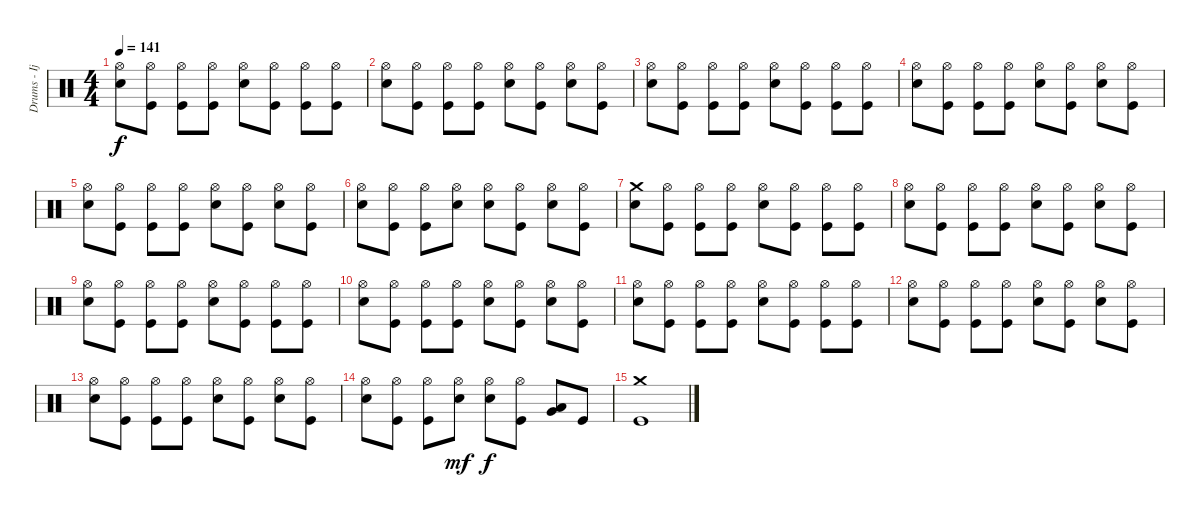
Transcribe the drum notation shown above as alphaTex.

\track ("Drums - Ijichi" "Drums - Ij") {instrument percussion}
\staff {score}
\articulation defaults
\ts (4 4)
\tempo 141
\clef neutral
\ks c
("Hi-Hat (open)" "Electric Snare (hit)").8{dy f} ("Hi-Hat (open)" "Kick (hit)").8 ("Hi-Hat (open)" "Kick (hit)").8 ("Hi-Hat (open)" "Kick (hit)").8 ("Hi-Hat (open)" "Electric Snare (hit)").8 ("Hi-Hat (open)" "Kick (hit)").8 ("Hi-Hat (open)" "Kick (hit)").8 ("Hi-Hat (open)" "Kick (hit)").8 |
("Hi-Hat (open)" "Electric Snare (hit)").8 ("Hi-Hat (open)" "Kick (hit)").8 ("Hi-Hat (open)" "Kick (hit)").8 ("Hi-Hat (open)" "Kick (hit)").8 ("Hi-Hat (open)" "Electric Snare (hit)").8 ("Hi-Hat (open)" "Kick (hit)").8 ("Hi-Hat (open)" "Electric Snare (hit)").8 ("Hi-Hat (open)" "Kick (hit)").8 |
("Hi-Hat (open)" "Electric Snare (hit)").8 ("Hi-Hat (open)" "Kick (hit)").8 ("Hi-Hat (open)" "Kick (hit)").8 ("Hi-Hat (open)" "Kick (hit)").8 ("Hi-Hat (open)" "Electric Snare (hit)").8 ("Hi-Hat (open)" "Kick (hit)").8 ("Hi-Hat (open)" "Kick (hit)").8 ("Hi-Hat (open)" "Kick (hit)").8 |
("Hi-Hat (open)" "Electric Snare (hit)").8 ("Hi-Hat (open)" "Kick (hit)").8 ("Hi-Hat (open)" "Kick (hit)").8 ("Hi-Hat (open)" "Kick (hit)").8 ("Hi-Hat (open)" "Electric Snare (hit)").8 ("Hi-Hat (open)" "Kick (hit)").8 ("Hi-Hat (open)" "Electric Snare (hit)").8 ("Hi-Hat (open)" "Kick (hit)").8 |
("Hi-Hat (open)" "Electric Snare (hit)").8 ("Hi-Hat (open)" "Kick (hit)").8 ("Hi-Hat (open)" "Kick (hit)").8 ("Hi-Hat (open)" "Kick (hit)").8 ("Hi-Hat (open)" "Electric Snare (hit)").8 ("Hi-Hat (open)" "Kick (hit)").8 ("Hi-Hat (open)" "Electric Snare (hit)").8 ("Hi-Hat (open)" "Kick (hit)").8 |
("Hi-Hat (open)" "Electric Snare (hit)").8 ("Hi-Hat (open)" "Kick (hit)").8 ("Hi-Hat (open)" "Kick (hit)").8 ("Hi-Hat (open)" "Electric Snare (hit)").8 ("Hi-Hat (open)" "Electric Snare (hit)").8 ("Hi-Hat (open)" "Kick (hit)").8 ("Hi-Hat (open)" "Electric Snare (hit)").8 ("Hi-Hat (open)" "Kick (hit)").8 |
("Crash medium (hit)" "Electric Snare (hit)").8 ("Hi-Hat (open)" "Kick (hit)").8 ("Hi-Hat (open)" "Kick (hit)").8 ("Hi-Hat (open)" "Kick (hit)").8 ("Hi-Hat (open)" "Electric Snare (hit)").8 ("Hi-Hat (open)" "Kick (hit)").8 ("Hi-Hat (open)" "Kick (hit)").8 ("Hi-Hat (open)" "Kick (hit)").8 |
("Hi-Hat (open)" "Electric Snare (hit)").8 ("Hi-Hat (open)" "Kick (hit)").8 ("Hi-Hat (open)" "Kick (hit)").8 ("Hi-Hat (open)" "Kick (hit)").8 ("Hi-Hat (open)" "Electric Snare (hit)").8 ("Hi-Hat (open)" "Kick (hit)").8 ("Hi-Hat (open)" "Electric Snare (hit)").8 ("Hi-Hat (open)" "Kick (hit)").8 |
("Hi-Hat (open)" "Electric Snare (hit)").8 ("Hi-Hat (open)" "Kick (hit)").8 ("Hi-Hat (open)" "Kick (hit)").8 ("Hi-Hat (open)" "Kick (hit)").8 ("Hi-Hat (open)" "Electric Snare (hit)").8 ("Hi-Hat (open)" "Kick (hit)").8 ("Hi-Hat (open)" "Kick (hit)").8 ("Hi-Hat (open)" "Kick (hit)").8 |
("Hi-Hat (open)" "Electric Snare (hit)").8 ("Hi-Hat (open)" "Kick (hit)").8 ("Hi-Hat (open)" "Kick (hit)").8 ("Hi-Hat (open)" "Kick (hit)").8 ("Hi-Hat (open)" "Electric Snare (hit)").8 ("Hi-Hat (open)" "Kick (hit)").8 ("Hi-Hat (open)" "Electric Snare (hit)").8 ("Hi-Hat (open)" "Kick (hit)").8 |
("Hi-Hat (open)" "Electric Snare (hit)").8 ("Hi-Hat (open)" "Kick (hit)").8 ("Hi-Hat (open)" "Kick (hit)").8 ("Hi-Hat (open)" "Kick (hit)").8 ("Hi-Hat (open)" "Electric Snare (hit)").8 ("Hi-Hat (open)" "Kick (hit)").8 ("Hi-Hat (open)" "Kick (hit)").8 ("Hi-Hat (open)" "Kick (hit)").8 |
("Hi-Hat (open)" "Electric Snare (hit)").8 ("Hi-Hat (open)" "Kick (hit)").8 ("Hi-Hat (open)" "Kick (hit)").8 ("Hi-Hat (open)" "Kick (hit)").8 ("Hi-Hat (open)" "Electric Snare (hit)").8 ("Hi-Hat (open)" "Kick (hit)").8 ("Hi-Hat (open)" "Electric Snare (hit)").8 ("Hi-Hat (open)" "Kick (hit)").8 |
("Hi-Hat (open)" "Electric Snare (hit)").8 ("Hi-Hat (open)" "Kick (hit)").8 ("Hi-Hat (open)" "Kick (hit)").8 ("Hi-Hat (open)" "Kick (hit)").8 ("Hi-Hat (open)" "Electric Snare (hit)").8 ("Hi-Hat (open)" "Kick (hit)").8 ("Hi-Hat (open)" "Electric Snare (hit)").8 ("Hi-Hat (open)" "Kick (hit)").8 |
("Hi-Hat (open)" "Electric Snare (hit)").8 ("Hi-Hat (open)" "Kick (hit)").8 ("Hi-Hat (open)" "Kick (hit)").8 ("Hi-Hat (open)" "Electric Snare (hit)").8{dy mf} ("Hi-Hat (open)" "Electric Snare (hit)").8{dy f} ("Hi-Hat (open)" "Kick (hit)").8 ("Low Tom (hit)" "Very Low Tom (hit)").8 "Kick (hit)".8 |
("Crash medium (hit)" "Kick (hit)").1
